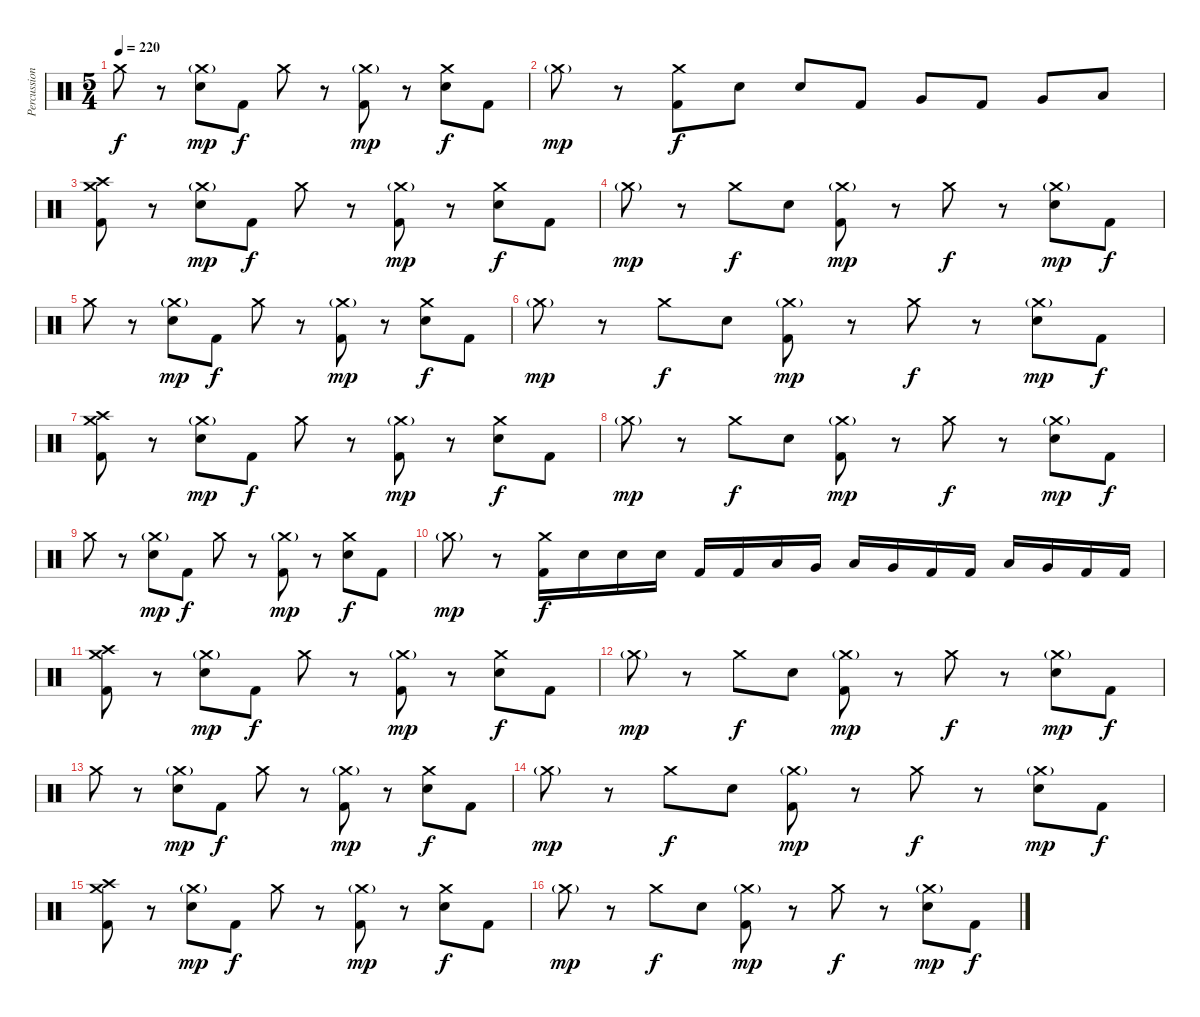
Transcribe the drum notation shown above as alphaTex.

\track ("Percussion" "Percussion") {instrument percussion}
\staff {score}
\articulation defaults
\ts (5 4)
\tempo 220
\clef neutral
\ks c "Crash medium (hit)".8{dy f}
r.8 ("Crash medium (hit)"{g} "Electric Snare (hit)").8{dy mp} "Kick (hit) 2".8{dy f} "Crash medium (hit)".8 r.8 ("Crash medium (hit)"{g} "Kick (hit) 2").8{dy mp} r.8 ("Crash medium (hit)" "Electric Snare (hit)").8{dy f} "Kick (hit) 2".8 |
"Crash medium (hit)"{g}.8{dy mp} r.8 ("Crash medium (hit)" "Kick (hit) 2").8{dy f} "Electric Snare (hit)".8 "Electric Snare (hit)".8 "Kick (hit) 2".8 "Very Low Tom (hit)".8 "Kick (hit) 2".8 "Very Low Tom (hit)".8 "Low Floor Tom (hit)".8 |
("Crash medium (hit)" "Crash high (hit)" "Kick (hit) 2").8 r.8 ("Crash medium (hit)"{g} "Electric Snare (hit)").8{dy mp} "Kick (hit) 2".8{dy f} "Crash medium (hit)".8 r.8 ("Crash medium (hit)"{g} "Kick (hit) 2").8{dy mp} r.8 ("Crash medium (hit)" "Electric Snare (hit)").8{dy f} "Kick (hit) 2".8 |
"Crash medium (hit)"{g}.8{dy mp} r.8 "Crash medium (hit)".8{dy f} "Electric Snare (hit)".8 ("Crash medium (hit)"{g} "Kick (hit) 2").8{dy mp} r.8 "Crash medium (hit)".8{dy f} r.8 ("Crash medium (hit)"{g} "Electric Snare (hit)").8{dy mp} "Kick (hit) 2".8{dy f} |
"Crash medium (hit)".8 r.8 ("Crash medium (hit)"{g} "Electric Snare (hit)").8{dy mp} "Kick (hit) 2".8{dy f} "Crash medium (hit)".8 r.8 ("Crash medium (hit)"{g} "Kick (hit) 2").8{dy mp} r.8 ("Crash medium (hit)" "Electric Snare (hit)").8{dy f} "Kick (hit) 2".8 |
"Crash medium (hit)"{g}.8{dy mp} r.8 "Crash medium (hit)".8{dy f} "Electric Snare (hit)".8 ("Crash medium (hit)"{g} "Kick (hit) 2").8{dy mp} r.8 "Crash medium (hit)".8{dy f} r.8 ("Crash medium (hit)"{g} "Electric Snare (hit)").8{dy mp} "Kick (hit) 2".8{dy f} |
("Crash medium (hit)" "Crash high (hit)" "Kick (hit) 2").8 r.8 ("Crash medium (hit)"{g} "Electric Snare (hit)").8{dy mp} "Kick (hit) 2".8{dy f} "Crash medium (hit)".8 r.8 ("Crash medium (hit)"{g} "Kick (hit) 2").8{dy mp} r.8 ("Crash medium (hit)" "Electric Snare (hit)").8{dy f} "Kick (hit) 2".8 |
"Crash medium (hit)"{g}.8{dy mp} r.8 "Crash medium (hit)".8{dy f} "Electric Snare (hit)".8 ("Crash medium (hit)"{g} "Kick (hit) 2").8{dy mp} r.8 "Crash medium (hit)".8{dy f} r.8 ("Crash medium (hit)"{g} "Electric Snare (hit)").8{dy mp} "Kick (hit) 2".8{dy f} |
"Crash medium (hit)".8 r.8 ("Crash medium (hit)"{g} "Electric Snare (hit)").8{dy mp} "Kick (hit) 2".8{dy f} "Crash medium (hit)".8 r.8 ("Crash medium (hit)"{g} "Kick (hit) 2").8{dy mp} r.8 ("Crash medium (hit)" "Electric Snare (hit)").8{dy f} "Kick (hit) 2".8 |
"Crash medium (hit)"{g}.8{dy mp} r.8 ("Crash medium (hit)" "Kick (hit) 2").16{dy f} "Electric Snare (hit)".16 "Electric Snare (hit)".16 "Electric Snare (hit)".16 "Kick (hit) 2".16 "Kick (hit) 2".16 "Low Floor Tom (hit)".16 "Very Low Tom (hit)".16 "Low Floor Tom (hit)".16 "Very Low Tom (hit)".16 "Kick (hit) 2".16 "Kick (hit) 2".16 "Low Floor Tom (hit)".16 "Very Low Tom (hit)".16 "Kick (hit) 2".16 "Kick (hit) 2".16 |
("Crash medium (hit)" "Crash high (hit)" "Kick (hit) 2").8 r.8 ("Crash medium (hit)"{g} "Electric Snare (hit)").8{dy mp} "Kick (hit) 2".8{dy f} "Crash medium (hit)".8 r.8 ("Crash medium (hit)"{g} "Kick (hit) 2").8{dy mp} r.8 ("Crash medium (hit)" "Electric Snare (hit)").8{dy f} "Kick (hit) 2".8 |
"Crash medium (hit)"{g}.8{dy mp} r.8 "Crash medium (hit)".8{dy f} "Electric Snare (hit)".8 ("Crash medium (hit)"{g} "Kick (hit) 2").8{dy mp} r.8 "Crash medium (hit)".8{dy f} r.8 ("Crash medium (hit)"{g} "Electric Snare (hit)").8{dy mp} "Kick (hit) 2".8{dy f} |
"Crash medium (hit)".8 r.8 ("Crash medium (hit)"{g} "Electric Snare (hit)").8{dy mp} "Kick (hit) 2".8{dy f} "Crash medium (hit)".8 r.8 ("Crash medium (hit)"{g} "Kick (hit) 2").8{dy mp} r.8 ("Crash medium (hit)" "Electric Snare (hit)").8{dy f} "Kick (hit) 2".8 |
"Crash medium (hit)"{g}.8{dy mp} r.8 "Crash medium (hit)".8{dy f} "Electric Snare (hit)".8 ("Crash medium (hit)"{g} "Kick (hit) 2").8{dy mp} r.8 "Crash medium (hit)".8{dy f} r.8 ("Crash medium (hit)"{g} "Electric Snare (hit)").8{dy mp} "Kick (hit) 2".8{dy f} |
("Crash medium (hit)" "Crash high (hit)" "Kick (hit) 2").8 r.8 ("Crash medium (hit)"{g} "Electric Snare (hit)").8{dy mp} "Kick (hit) 2".8{dy f} "Crash medium (hit)".8 r.8 ("Crash medium (hit)"{g} "Kick (hit) 2").8{dy mp} r.8 ("Crash medium (hit)" "Electric Snare (hit)").8{dy f} "Kick (hit) 2".8 |
"Crash medium (hit)"{g}.8{dy mp} r.8 "Crash medium (hit)".8{dy f} "Electric Snare (hit)".8 ("Crash medium (hit)"{g} "Kick (hit) 2").8{dy mp} r.8 "Crash medium (hit)".8{dy f} r.8 ("Crash medium (hit)"{g} "Electric Snare (hit)").8{dy mp} "Kick (hit) 2".8{dy f}
